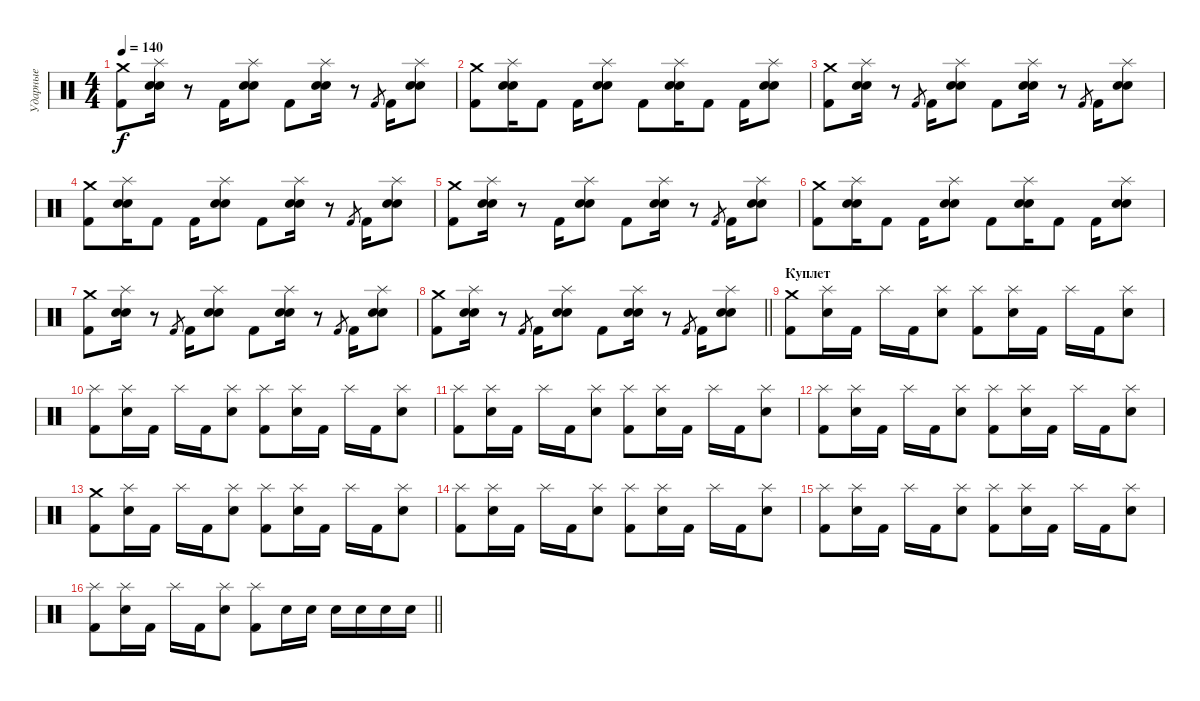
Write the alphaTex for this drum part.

\track ("Ударные" "Ударные") {instrument percussion}
\staff {score}
\articulation defaults
\ts (4 4)
\tempo 140
\clef neutral
\ks c
("Crash medium (hit)" "Kick (hit) 2").8{dy f} ("Splash (hit)" "Electric Snare (hit)" "Snare (hit) 2").16 r.8 "Kick (hit) 2".16 ("Splash (hit)" "Electric Snare (hit)" "Snare (hit) 2").8 "Kick (hit) 2".8 ("Splash (hit)" "Electric Snare (hit)" "Snare (hit) 2").16 r.8 "Kick (hit) 2".8{gr} "Kick (hit) 2".16 ("Splash (hit)" "Electric Snare (hit)" "Snare (hit) 2").8 |
("Crash medium (hit)" "Kick (hit) 2").8 ("Splash (hit)" "Electric Snare (hit)" "Snare (hit) 2").16 "Kick (hit) 2".8 "Kick (hit) 2".16 ("Splash (hit)" "Electric Snare (hit)" "Snare (hit) 2").8 "Kick (hit) 2".8 ("Splash (hit)" "Electric Snare (hit)" "Snare (hit) 2").16 "Kick (hit) 2".8 "Kick (hit) 2".16 ("Splash (hit)" "Electric Snare (hit)" "Snare (hit) 2").8 |
("Crash medium (hit)" "Kick (hit) 2").8 ("Splash (hit)" "Electric Snare (hit)" "Snare (hit) 2").16 r.8 "Kick (hit) 2".8{gr} "Kick (hit) 2".16 ("Splash (hit)" "Electric Snare (hit)" "Snare (hit) 2").8 "Kick (hit) 2".8 ("Splash (hit)" "Electric Snare (hit)" "Snare (hit) 2").16 r.8 "Kick (hit) 2".8{gr} "Kick (hit) 2".16 ("Splash (hit)" "Electric Snare (hit)" "Snare (hit) 2").8 |
("Crash medium (hit)" "Kick (hit) 2").8 ("Splash (hit)" "Electric Snare (hit)" "Snare (hit) 2").16 "Kick (hit) 2".8 "Kick (hit) 2".16 ("Splash (hit)" "Electric Snare (hit)" "Snare (hit) 2").8 "Kick (hit) 2".8 ("Splash (hit)" "Electric Snare (hit)" "Snare (hit) 2").16 r.8 "Kick (hit) 2".8{gr} "Kick (hit) 2".16 ("Splash (hit)" "Electric Snare (hit)" "Snare (hit) 2").8 |
("Crash medium (hit)" "Kick (hit) 2").8 ("Splash (hit)" "Electric Snare (hit)" "Snare (hit) 2").16 r.8 "Kick (hit) 2".16 ("Splash (hit)" "Electric Snare (hit)" "Snare (hit) 2").8 "Kick (hit) 2".8 ("Splash (hit)" "Electric Snare (hit)" "Snare (hit) 2").16 r.8 "Kick (hit) 2".8{gr} "Kick (hit) 2".16 ("Splash (hit)" "Electric Snare (hit)" "Snare (hit) 2").8 |
("Crash medium (hit)" "Kick (hit) 2").8 ("Splash (hit)" "Electric Snare (hit)" "Snare (hit) 2").16 "Kick (hit) 2".8 "Kick (hit) 2".16 ("Splash (hit)" "Electric Snare (hit)" "Snare (hit) 2").8 "Kick (hit) 2".8 ("Splash (hit)" "Electric Snare (hit)" "Snare (hit) 2").16 "Kick (hit) 2".8 "Kick (hit) 2".16 ("Splash (hit)" "Electric Snare (hit)" "Snare (hit) 2").8 |
("Crash medium (hit)" "Kick (hit) 2").8 ("Splash (hit)" "Electric Snare (hit)" "Snare (hit) 2").16 r.8 "Kick (hit) 2".8{gr} "Kick (hit) 2".16 ("Splash (hit)" "Electric Snare (hit)" "Snare (hit) 2").8 "Kick (hit) 2".8 ("Splash (hit)" "Electric Snare (hit)" "Snare (hit) 2").16 r.8 "Kick (hit) 2".8{gr} "Kick (hit) 2".16 ("Splash (hit)" "Electric Snare (hit)" "Snare (hit) 2").8 |
\barLineRight lightlight
("Crash medium (hit)" "Kick (hit) 2").8 ("Splash (hit)" "Electric Snare (hit)" "Snare (hit) 2").16 r.8 "Kick (hit) 2".8{gr} "Kick (hit) 2".16 ("Splash (hit)" "Electric Snare (hit)" "Snare (hit) 2").8 "Kick (hit) 2".8 ("Splash (hit)" "Electric Snare (hit)" "Snare (hit) 2").16 r.8 "Kick (hit) 2".8{gr} "Kick (hit) 2".16 ("Splash (hit)" "Electric Snare (hit)" "Snare (hit) 2").8 |
\section ("" "Куплет")
("Crash medium (hit)" "Kick (hit) 2").8 ("Splash (hit)" "Electric Snare (hit)").16 "Kick (hit) 2".16 "Splash (hit)".16 "Kick (hit) 2".16 ("Splash (hit)" "Electric Snare (hit)").8 ("Splash (hit)" "Kick (hit) 2").8 ("Splash (hit)" "Electric Snare (hit)").16 "Kick (hit) 2".16 "Splash (hit)".16 "Kick (hit) 2".16 ("Splash (hit)" "Electric Snare (hit)").8 |
("Splash (hit)" "Kick (hit) 2").8 ("Splash (hit)" "Electric Snare (hit)").16 "Kick (hit) 2".16 "Splash (hit)".16 "Kick (hit) 2".16 ("Splash (hit)" "Electric Snare (hit)").8 ("Splash (hit)" "Kick (hit) 2").8 ("Splash (hit)" "Electric Snare (hit)").16 "Kick (hit) 2".16 "Splash (hit)".16 "Kick (hit) 2".16 ("Splash (hit)" "Electric Snare (hit)").8 |
("Splash (hit)" "Kick (hit) 2").8 ("Splash (hit)" "Electric Snare (hit)").16 "Kick (hit) 2".16 "Splash (hit)".16 "Kick (hit) 2".16 ("Splash (hit)" "Electric Snare (hit)").8 ("Splash (hit)" "Kick (hit) 2").8 ("Splash (hit)" "Electric Snare (hit)").16 "Kick (hit) 2".16 "Splash (hit)".16 "Kick (hit) 2".16 ("Splash (hit)" "Electric Snare (hit)").8 |
("Splash (hit)" "Kick (hit) 2").8 ("Splash (hit)" "Electric Snare (hit)").16 "Kick (hit) 2".16 "Splash (hit)".16 "Kick (hit) 2".16 ("Splash (hit)" "Electric Snare (hit)").8 ("Splash (hit)" "Kick (hit) 2").8 ("Splash (hit)" "Electric Snare (hit)").16 "Kick (hit) 2".16 "Splash (hit)".16 "Kick (hit) 2".16 ("Splash (hit)" "Electric Snare (hit)").8 |
("Crash medium (hit)" "Kick (hit) 2").8 ("Splash (hit)" "Electric Snare (hit)").16 "Kick (hit) 2".16 "Splash (hit)".16 "Kick (hit) 2".16 ("Splash (hit)" "Electric Snare (hit)").8 ("Splash (hit)" "Kick (hit) 2").8 ("Splash (hit)" "Electric Snare (hit)").16 "Kick (hit) 2".16 "Splash (hit)".16 "Kick (hit) 2".16 ("Splash (hit)" "Electric Snare (hit)").8 |
("Splash (hit)" "Kick (hit) 2").8 ("Splash (hit)" "Electric Snare (hit)").16 "Kick (hit) 2".16 "Splash (hit)".16 "Kick (hit) 2".16 ("Splash (hit)" "Electric Snare (hit)").8 ("Splash (hit)" "Kick (hit) 2").8 ("Splash (hit)" "Electric Snare (hit)").16 "Kick (hit) 2".16 "Splash (hit)".16 "Kick (hit) 2".16 ("Splash (hit)" "Electric Snare (hit)").8 |
("Splash (hit)" "Kick (hit) 2").8 ("Splash (hit)" "Electric Snare (hit)").16 "Kick (hit) 2".16 "Splash (hit)".16 "Kick (hit) 2".16 ("Splash (hit)" "Electric Snare (hit)").8 ("Splash (hit)" "Kick (hit) 2").8 ("Splash (hit)" "Electric Snare (hit)").16 "Kick (hit) 2".16 "Splash (hit)".16 "Kick (hit) 2".16 ("Splash (hit)" "Electric Snare (hit)").8 |
\barLineRight lightlight
("Splash (hit)" "Kick (hit) 2").8 ("Splash (hit)" "Electric Snare (hit)").16 "Kick (hit) 2".16 "Splash (hit)".16 "Kick (hit) 2".16 ("Splash (hit)" "Electric Snare (hit)").8 ("Splash (hit)" "Kick (hit) 2").8 "Electric Snare (hit)".16 "Electric Snare (hit)".16 "Electric Snare (hit)".16 "Electric Snare (hit)".16 "Electric Snare (hit)".16 "Electric Snare (hit)".16
